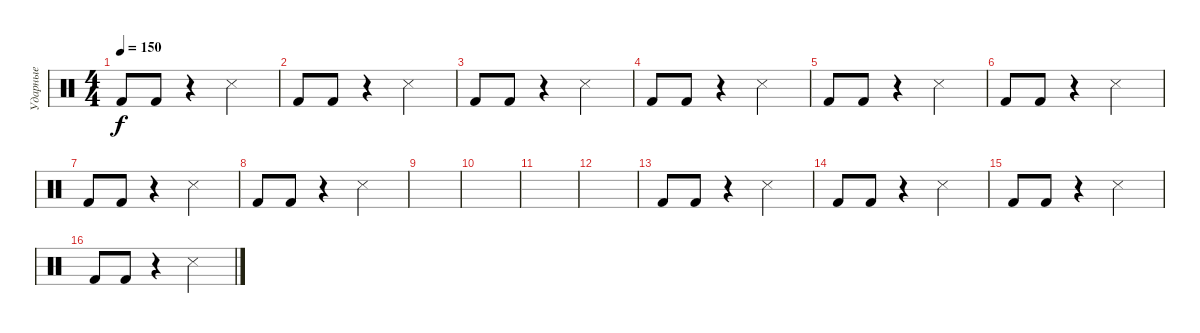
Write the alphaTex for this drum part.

\track ("Ударные" "Ударные") {instrument percussion}
\staff {score}
\articulation defaults
\ts (4 4)
\tempo 150
\clef neutral
\ks c "Kick (hit) 2".8{dy f} "Kick (hit) 2".8
r.4 "Snare (side stick) 3".2 |
"Kick (hit) 2".8 "Kick (hit) 2".8 r.4 "Snare (side stick) 3".2 |
"Kick (hit) 2".8 "Kick (hit) 2".8 r.4 "Snare (side stick) 3".2 |
"Kick (hit) 2".8 "Kick (hit) 2".8 r.4 "Snare (side stick) 3".2 |
"Kick (hit) 2".8 "Kick (hit) 2".8 r.4 "Snare (side stick) 3".2 |
"Kick (hit) 2".8 "Kick (hit) 2".8 r.4 "Snare (side stick) 3".2 |
"Kick (hit) 2".8 "Kick (hit) 2".8 r.4 "Snare (side stick) 3".2 |
"Kick (hit) 2".8 "Kick (hit) 2".8 r.4 "Snare (side stick) 3".2 |
|
|
|
|
"Kick (hit) 2".8 "Kick (hit) 2".8 r.4 "Snare (side stick) 3".2 |
"Kick (hit) 2".8 "Kick (hit) 2".8 r.4 "Snare (side stick) 3".2 |
"Kick (hit) 2".8 "Kick (hit) 2".8 r.4 "Snare (side stick) 3".2 |
"Kick (hit) 2".8 "Kick (hit) 2".8 r.4 "Snare (side stick) 3".2
